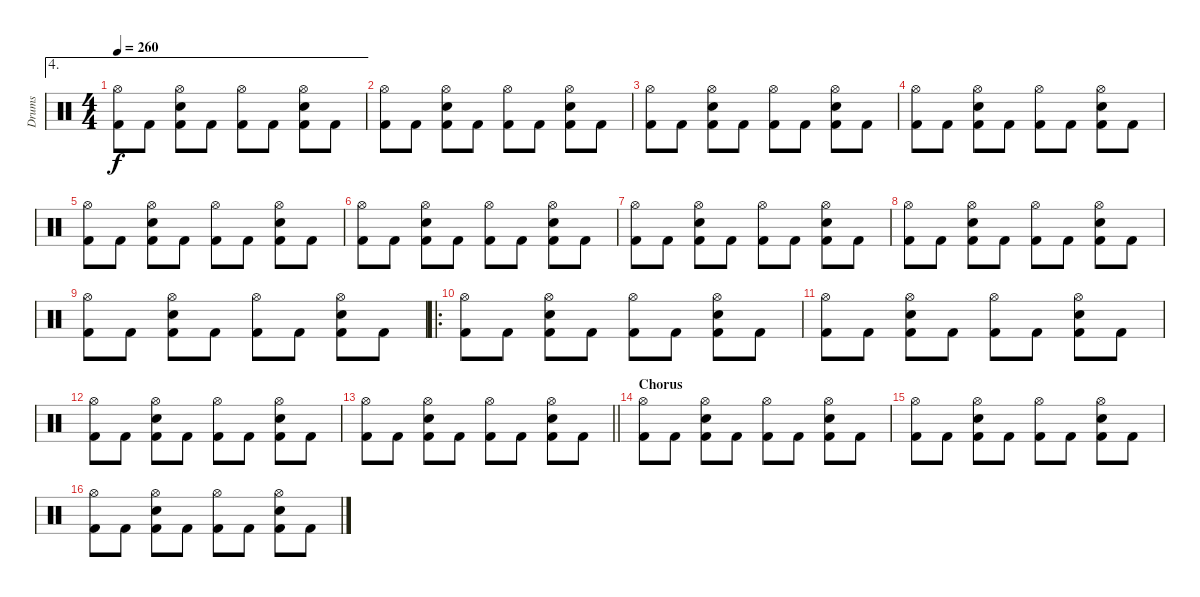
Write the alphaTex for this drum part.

\track ("Drums" "Drums") {instrument percussion}
\staff {score}
\articulation defaults
\ae 4
\ts (4 4)
\tempo 260
\clef neutral
\ks c
("Hi-Hat (open)" "Kick (hit) 2").8{dy f} "Kick (hit) 2".8 ("Hi-Hat (open)" "Snare (hit) 2" "Kick (hit) 2").8 "Kick (hit) 2".8 ("Hi-Hat (open)" "Kick (hit) 2").8 "Kick (hit) 2".8 ("Hi-Hat (open)" "Snare (hit) 2" "Kick (hit) 2").8 "Kick (hit) 2".8 |
("Hi-Hat (open)" "Kick (hit) 2").8 "Kick (hit) 2".8 ("Hi-Hat (open)" "Snare (hit) 2" "Kick (hit) 2").8 "Kick (hit) 2".8 ("Hi-Hat (open)" "Kick (hit) 2").8 "Kick (hit) 2".8 ("Hi-Hat (open)" "Snare (hit) 2" "Kick (hit) 2").8 "Kick (hit) 2".8 |
("Hi-Hat (open)" "Kick (hit) 2").8 "Kick (hit) 2".8 ("Hi-Hat (open)" "Snare (hit) 2" "Kick (hit) 2").8 "Kick (hit) 2".8 ("Hi-Hat (open)" "Kick (hit) 2").8 "Kick (hit) 2".8 ("Hi-Hat (open)" "Snare (hit) 2" "Kick (hit) 2").8 "Kick (hit) 2".8 |
("Hi-Hat (open)" "Kick (hit) 2").8 "Kick (hit) 2".8 ("Hi-Hat (open)" "Snare (hit) 2" "Kick (hit) 2").8 "Kick (hit) 2".8 ("Hi-Hat (open)" "Kick (hit) 2").8 "Kick (hit) 2".8 ("Hi-Hat (open)" "Snare (hit) 2" "Kick (hit) 2").8 "Kick (hit) 2".8 |
("Hi-Hat (open)" "Kick (hit) 2").8 "Kick (hit) 2".8 ("Hi-Hat (open)" "Snare (hit) 2" "Kick (hit) 2").8 "Kick (hit) 2".8 ("Hi-Hat (open)" "Kick (hit) 2").8 "Kick (hit) 2".8 ("Hi-Hat (open)" "Snare (hit) 2" "Kick (hit) 2").8 "Kick (hit) 2".8 |
("Hi-Hat (open)" "Kick (hit) 2").8 "Kick (hit) 2".8 ("Hi-Hat (open)" "Snare (hit) 2" "Kick (hit) 2").8 "Kick (hit) 2".8 ("Hi-Hat (open)" "Kick (hit) 2").8 "Kick (hit) 2".8 ("Hi-Hat (open)" "Snare (hit) 2" "Kick (hit) 2").8 "Kick (hit) 2".8 |
("Hi-Hat (open)" "Kick (hit) 2").8 "Kick (hit) 2".8 ("Hi-Hat (open)" "Snare (hit) 2" "Kick (hit) 2").8 "Kick (hit) 2".8 ("Hi-Hat (open)" "Kick (hit) 2").8 "Kick (hit) 2".8 ("Hi-Hat (open)" "Snare (hit) 2" "Kick (hit) 2").8 "Kick (hit) 2".8 |
("Hi-Hat (open)" "Kick (hit) 2").8 "Kick (hit) 2".8 ("Hi-Hat (open)" "Snare (hit) 2" "Kick (hit) 2").8 "Kick (hit) 2".8 ("Hi-Hat (open)" "Kick (hit) 2").8 "Kick (hit) 2".8 ("Hi-Hat (open)" "Snare (hit) 2" "Kick (hit) 2").8 "Kick (hit) 2".8 |
("Hi-Hat (open)" "Kick (hit) 2").8 "Kick (hit) 2".8 ("Hi-Hat (open)" "Snare (hit) 2" "Kick (hit) 2").8 "Kick (hit) 2".8 ("Hi-Hat (open)" "Kick (hit) 2").8 "Kick (hit) 2".8 ("Hi-Hat (open)" "Snare (hit) 2" "Kick (hit) 2").8 "Kick (hit) 2".8 |
\ro
("Hi-Hat (open)" "Kick (hit) 2").8 "Kick (hit) 2".8 ("Hi-Hat (open)" "Snare (hit) 2" "Kick (hit) 2").8 "Kick (hit) 2".8 ("Hi-Hat (open)" "Kick (hit) 2").8 "Kick (hit) 2".8 ("Hi-Hat (open)" "Snare (hit) 2" "Kick (hit) 2").8 "Kick (hit) 2".8 |
("Hi-Hat (open)" "Kick (hit) 2").8 "Kick (hit) 2".8 ("Hi-Hat (open)" "Snare (hit) 2" "Kick (hit) 2").8 "Kick (hit) 2".8 ("Hi-Hat (open)" "Kick (hit) 2").8 "Kick (hit) 2".8 ("Hi-Hat (open)" "Snare (hit) 2" "Kick (hit) 2").8 "Kick (hit) 2".8 |
("Hi-Hat (open)" "Kick (hit) 2").8 "Kick (hit) 2".8 ("Hi-Hat (open)" "Snare (hit) 2" "Kick (hit) 2").8 "Kick (hit) 2".8 ("Hi-Hat (open)" "Kick (hit) 2").8 "Kick (hit) 2".8 ("Hi-Hat (open)" "Snare (hit) 2" "Kick (hit) 2").8 "Kick (hit) 2".8 |
\barLineRight lightlight
("Hi-Hat (open)" "Kick (hit) 2").8 "Kick (hit) 2".8 ("Hi-Hat (open)" "Snare (hit) 2" "Kick (hit) 2").8 "Kick (hit) 2".8 ("Hi-Hat (open)" "Kick (hit) 2").8 "Kick (hit) 2".8 ("Hi-Hat (open)" "Snare (hit) 2" "Kick (hit) 2").8 "Kick (hit) 2".8 |
\section ("" "Chorus")
("Hi-Hat (open)" "Kick (hit) 2").8 "Kick (hit) 2".8 ("Hi-Hat (open)" "Snare (hit) 2" "Kick (hit) 2").8 "Kick (hit) 2".8 ("Hi-Hat (open)" "Kick (hit) 2").8 "Kick (hit) 2".8 ("Hi-Hat (open)" "Snare (hit) 2" "Kick (hit) 2").8 "Kick (hit) 2".8 |
("Hi-Hat (open)" "Kick (hit) 2").8 "Kick (hit) 2".8 ("Hi-Hat (open)" "Snare (hit) 2" "Kick (hit) 2").8 "Kick (hit) 2".8 ("Hi-Hat (open)" "Kick (hit) 2").8 "Kick (hit) 2".8 ("Hi-Hat (open)" "Snare (hit) 2" "Kick (hit) 2").8 "Kick (hit) 2".8 |
("Hi-Hat (open)" "Kick (hit) 2").8 "Kick (hit) 2".8 ("Hi-Hat (open)" "Snare (hit) 2" "Kick (hit) 2").8 "Kick (hit) 2".8 ("Hi-Hat (open)" "Kick (hit) 2").8 "Kick (hit) 2".8 ("Hi-Hat (open)" "Snare (hit) 2" "Kick (hit) 2").8 "Kick (hit) 2".8
